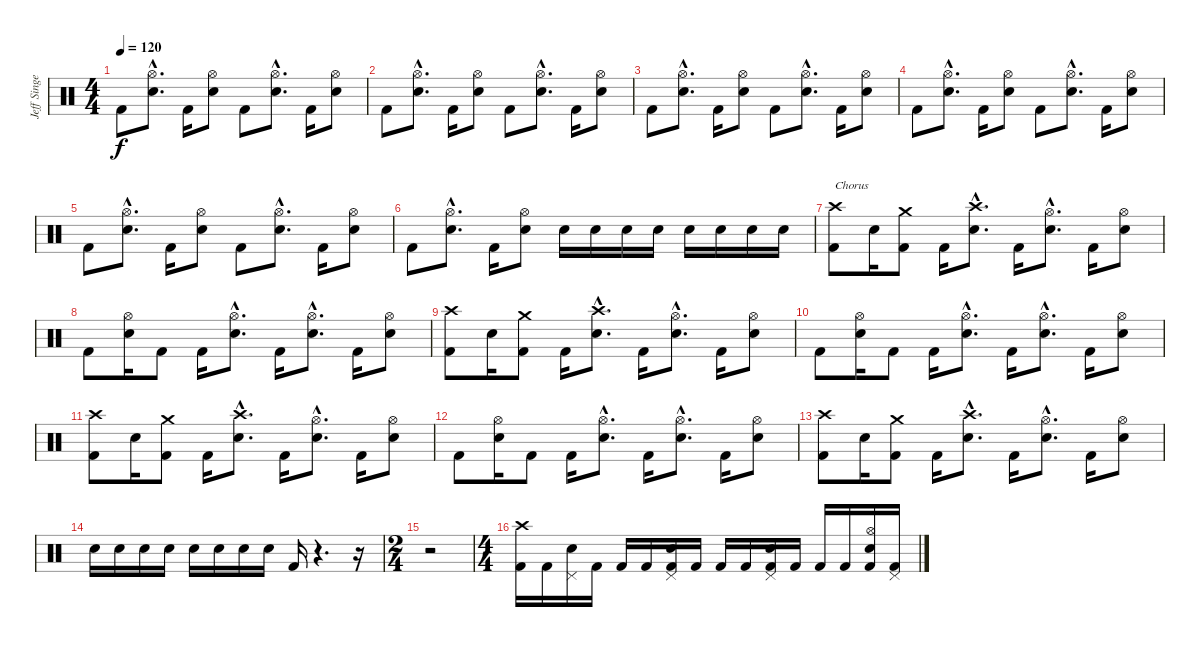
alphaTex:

\track ("Jeff Singer" "Jeff Singe") {instrument percussion}
\staff {score}
\articulation defaults
\ts (4 4)
\tempo 120
\clef neutral
\ks c "Kick (hit) 2".8{dy f}
("Hi-Hat (open)"{hac} "Snare (hit) 2"{hac}).8{d} "Kick (hit) 2".16 ("Hi-Hat (open)" "Snare (hit) 2").8 "Kick (hit) 2".8 ("Hi-Hat (open)"{hac} "Snare (hit) 2"{hac}).8{d} "Kick (hit) 2".16 ("Hi-Hat (open)" "Snare (hit) 2").8 |
"Kick (hit) 2".8 ("Hi-Hat (open)"{hac} "Snare (hit) 2"{hac}).8{d} "Kick (hit) 2".16 ("Hi-Hat (open)" "Snare (hit) 2").8 "Kick (hit) 2".8 ("Hi-Hat (open)"{hac} "Snare (hit) 2"{hac}).8{d} "Kick (hit) 2".16 ("Hi-Hat (open)" "Snare (hit) 2").8 |
"Kick (hit) 2".8 ("Hi-Hat (open)"{hac} "Snare (hit) 2"{hac}).8{d} "Kick (hit) 2".16 ("Hi-Hat (open)" "Snare (hit) 2").8 "Kick (hit) 2".8 ("Hi-Hat (open)"{hac} "Snare (hit) 2"{hac}).8{d} "Kick (hit) 2".16 ("Hi-Hat (open)" "Snare (hit) 2").8 |
"Kick (hit) 2".8 ("Hi-Hat (open)"{hac} "Snare (hit) 2"{hac}).8{d} "Kick (hit) 2".16 ("Hi-Hat (open)" "Snare (hit) 2").8 "Kick (hit) 2".8 ("Hi-Hat (open)"{hac} "Snare (hit) 2"{hac}).8{d} "Kick (hit) 2".16 ("Hi-Hat (open)" "Snare (hit) 2").8 |
"Kick (hit) 2".8 ("Hi-Hat (open)"{hac} "Snare (hit) 2"{hac}).8{d} "Kick (hit) 2".16 ("Hi-Hat (open)" "Snare (hit) 2").8 "Kick (hit) 2".8 ("Hi-Hat (open)"{hac} "Snare (hit) 2"{hac}).8{d} "Kick (hit) 2".16 ("Hi-Hat (open)" "Snare (hit) 2").8 |
"Kick (hit) 2".8 ("Hi-Hat (open)"{hac} "Snare (hit) 2"{hac}).8{d} "Kick (hit) 2".16 ("Hi-Hat (open)" "Snare (hit) 2").8 "Snare (hit) 2".16 "Snare (hit) 2".16 "Snare (hit) 2".16 "Snare (hit) 2".16 "Snare (hit) 2".16 "Snare (hit) 2".16 "Snare (hit) 2".16 "Snare (hit) 2".16 |
("Crash high (hit)" "Kick (hit) 2").8{txt "Chorus"} "Snare (hit) 2".16 ("Crash medium (hit)" "Kick (hit) 2").8 "Kick (hit) 2".16 ("Crash high (hit)"{hac} "Snare (hit) 2"{hac}).8{d} "Kick (hit) 2".16 ("Hi-Hat (open)"{hac} "Snare (hit) 2"{hac}).8{d} "Kick (hit) 2".16 ("Hi-Hat (open)" "Snare (hit) 2").8 |
"Kick (hit) 2".8 ("Hi-Hat (open)" "Snare (hit) 2").16 "Kick (hit) 2".8 "Kick (hit) 2".16 ("Hi-Hat (open)"{hac} "Snare (hit) 2"{hac}).8{d} "Kick (hit) 2".16 ("Hi-Hat (open)"{hac} "Snare (hit) 2"{hac}).8{d} "Kick (hit) 2".16 ("Hi-Hat (open)" "Snare (hit) 2").8 |
("Crash high (hit)" "Kick (hit) 2").8 "Snare (hit) 2".16 ("Crash medium (hit)" "Kick (hit) 2").8 "Kick (hit) 2".16 ("Crash high (hit)"{hac} "Snare (hit) 2"{hac}).8{d} "Kick (hit) 2".16 ("Hi-Hat (open)"{hac} "Snare (hit) 2"{hac}).8{d} "Kick (hit) 2".16 ("Hi-Hat (open)" "Snare (hit) 2").8 |
"Kick (hit) 2".8 ("Hi-Hat (open)" "Snare (hit) 2").16 "Kick (hit) 2".8 "Kick (hit) 2".16 ("Hi-Hat (open)"{hac} "Snare (hit) 2"{hac}).8{d} "Kick (hit) 2".16 ("Hi-Hat (open)"{hac} "Snare (hit) 2"{hac}).8{d} "Kick (hit) 2".16 ("Hi-Hat (open)" "Snare (hit) 2").8 |
("Crash high (hit)" "Kick (hit) 2").8 "Snare (hit) 2".16 ("Crash medium (hit)" "Kick (hit) 2").8 "Kick (hit) 2".16 ("Crash high (hit)"{hac} "Snare (hit) 2"{hac}).8{d} "Kick (hit) 2".16 ("Hi-Hat (open)"{hac} "Snare (hit) 2"{hac}).8{d} "Kick (hit) 2".16 ("Hi-Hat (open)" "Snare (hit) 2").8 |
"Kick (hit) 2".8 ("Hi-Hat (open)" "Snare (hit) 2").16 "Kick (hit) 2".8 "Kick (hit) 2".16 ("Hi-Hat (open)"{hac} "Snare (hit) 2"{hac}).8{d} "Kick (hit) 2".16 ("Hi-Hat (open)"{hac} "Snare (hit) 2"{hac}).8{d} "Kick (hit) 2".16 ("Hi-Hat (open)" "Snare (hit) 2").8 |
("Crash high (hit)" "Kick (hit) 2").8 "Snare (hit) 2".16 ("Crash medium (hit)" "Kick (hit) 2").8 "Kick (hit) 2".16 ("Crash high (hit)"{hac} "Snare (hit) 2"{hac}).8{d} "Kick (hit) 2".16 ("Hi-Hat (open)"{hac} "Snare (hit) 2"{hac}).8{d} "Kick (hit) 2".16 ("Hi-Hat (open)" "Snare (hit) 2").8 |
"Snare (hit) 2".16 "Snare (hit) 2".16 "Snare (hit) 2".16 "Snare (hit) 2".16 "Snare (hit) 2".16 "Snare (hit) 2".16 "Snare (hit) 2".16 "Snare (hit) 2".16 "Kick (hit) 2".16 r.4{d} r.16 |
\ts (2 4)
r.2 |
\ts (4 4)
("Crash high (hit)" "Kick (hit) 2").16 "Kick (hit) 2".16 ("Pedal Hi-Hat (hit)" "Snare (hit) 2").16 "Kick (hit) 2".16 "Kick (hit) 2".16 "Kick (hit) 2".16 ("Pedal Hi-Hat (hit)" "Snare (hit) 2" "Kick (hit) 2").16 "Kick (hit) 2".16 "Kick (hit) 2".16 "Kick (hit) 2".16 ("Pedal Hi-Hat (hit)" "Snare (hit) 2" "Kick (hit) 2").16 "Kick (hit) 2".16 "Kick (hit) 2".16 "Kick (hit) 2".16 ("Hi-Hat (open)" "Snare (hit) 2" "Kick (hit) 2").16 ("Pedal Hi-Hat (hit)" "Kick (hit) 2").16
